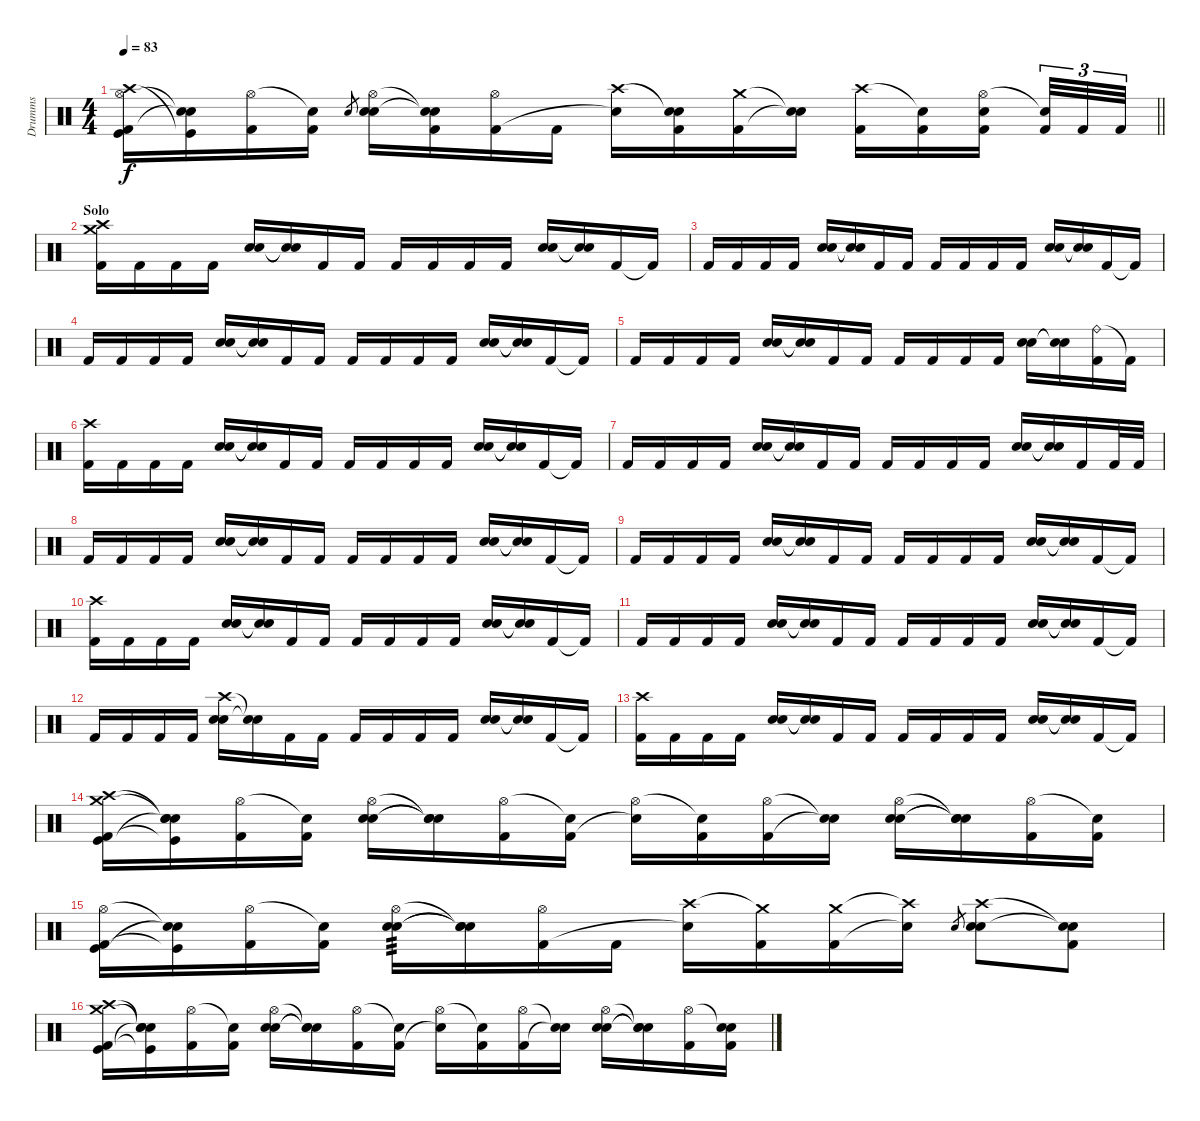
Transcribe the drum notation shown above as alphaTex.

\track ("Drumms" "Drumms") {instrument percussion}
\staff {score}
\articulation defaults
\ts (4 4)
\tempo 83
\clef neutral
\barLineRight lightlight
\ks c
("Hi-Hat (open)" "Crash high (hit)" "Kick (hit) 2" "Kick (hit)").16{dy f} ("Snare (hit)"{t} "Kick (hit)"{t} "Snare (hit)"{t}).16 ("Hi-Hat (open)" "Kick (hit) 2").16 ("Snare (hit)"{t} "Kick (hit) 2").16 "Electric Snare (hit)".8{gr} ("Hi-Hat (open)" "Electric Snare (hit)" "Electric Snare (hit)").16 ("Snare (hit)"{t} "Kick (hit) 2" "Snare (hit)"{t}).16 ("Hi-Hat (open)" "Kick (hit) 2").16 "Kick (hit) 2".16 ("Crash high (hit)" "Snare (hit)"{t}).16 ("Snare (hit)"{t} "Kick (hit) 2" "Electric Snare (hit)").16 ("Crash medium (hit)" "Kick (hit) 2").16 ("Snare (hit)"{t} "Snare (hit)"{t}).16 ("Crash high (hit)" "Kick (hit) 2").16 ("Snare (hit)"{t} "Kick (hit) 2").16 ("Hi-Hat (open)" "Kick (hit) 2" "Electric Snare (hit)").16{beam splitsecondary} ("Snare (hit)"{t} "Kick (hit) 2").32{tu (3 2)} "Kick (hit) 2".32{tu (3 2)} "Kick (hit) 2".32{tu (3 2)} |
\section ("" "Solo")
("Crash high (hit)" "Crash medium (hit)" "Kick (hit) 2").16 "Kick (hit) 2".16 "Kick (hit) 2".16 "Kick (hit) 2".16 ("Electric Snare (hit)" "Electric Snare (hit)").16 ("Snare (hit)"{t} "Snare (hit)"{t}).16 "Kick (hit) 2".16 "Kick (hit) 2".16 "Kick (hit) 2".16 "Kick (hit) 2".16 "Kick (hit) 2".16 "Kick (hit) 2".16 ("Electric Snare (hit)" "Electric Snare (hit)").16 ("Snare (hit)"{t} "Snare (hit)"{t}).16 "Kick (hit) 2".16 "Kick (hit) 2"{t}.16 |
"Kick (hit) 2".16 "Kick (hit) 2".16 "Kick (hit) 2".16 "Kick (hit) 2".16 ("Electric Snare (hit)" "Electric Snare (hit)").16 ("Snare (hit)"{t} "Snare (hit)"{t}).16 "Kick (hit) 2".16 "Kick (hit) 2".16 "Kick (hit) 2".16 "Kick (hit) 2".16 "Kick (hit) 2".16 "Kick (hit) 2".16 ("Electric Snare (hit)" "Electric Snare (hit)").16 ("Snare (hit)"{t} "Snare (hit)"{t}).16 "Kick (hit) 2".16 "Kick (hit) 2"{t}.16 |
"Kick (hit) 2".16 "Kick (hit) 2".16 "Kick (hit) 2".16 "Kick (hit) 2".16 ("Electric Snare (hit)" "Electric Snare (hit)").16 ("Snare (hit)"{t} "Snare (hit)"{t}).16 "Kick (hit) 2".16 "Kick (hit) 2".16 "Kick (hit) 2".16 "Kick (hit) 2".16 "Kick (hit) 2".16 "Kick (hit) 2".16 ("Electric Snare (hit)" "Electric Snare (hit)").16 ("Snare (hit)"{t} "Snare (hit)"{t}).16 "Kick (hit) 2".16 "Kick (hit) 2"{t}.16 |
"Kick (hit) 2".16 "Kick (hit) 2".16 "Kick (hit) 2".16 "Kick (hit) 2".16 ("Electric Snare (hit)" "Electric Snare (hit)").16 ("Snare (hit)"{t} "Snare (hit)"{t}).16 "Kick (hit) 2".16 "Kick (hit) 2".16 "Kick (hit) 2".16 "Kick (hit) 2".16 "Kick (hit) 2".16 "Kick (hit) 2".16 ("Electric Snare (hit)" "Electric Snare (hit)").16 ("Snare (hit)"{t} "Snare (hit)"{t}).16 ("Ride (bell)" "Kick (hit) 2").16 "Kick (hit) 2"{t}.16 |
("Crash high (hit)" "Kick (hit) 2").16 "Kick (hit) 2".16 "Kick (hit) 2".16 "Kick (hit) 2".16 ("Electric Snare (hit)" "Electric Snare (hit)").16 ("Snare (hit)"{t} "Snare (hit)"{t}).16 "Kick (hit) 2".16 "Kick (hit) 2".16 "Kick (hit) 2".16 "Kick (hit) 2".16 "Kick (hit) 2".16 "Kick (hit) 2".16 ("Electric Snare (hit)" "Electric Snare (hit)").16 ("Snare (hit)"{t} "Snare (hit)"{t}).16 "Kick (hit) 2".16 "Kick (hit) 2"{t}.16 |
"Kick (hit) 2".16 "Kick (hit) 2".16 "Kick (hit) 2".16 "Kick (hit) 2".16 ("Electric Snare (hit)" "Electric Snare (hit)").16 ("Snare (hit)"{t} "Snare (hit)"{t}).16 "Kick (hit) 2".16 "Kick (hit) 2".16 "Kick (hit) 2".16 "Kick (hit) 2".16 "Kick (hit) 2".16 "Kick (hit) 2".16 ("Electric Snare (hit)" "Electric Snare (hit)").16 ("Snare (hit)"{t} "Snare (hit)"{t}).16 "Kick (hit) 2".16 "Kick (hit) 2".32 "Kick (hit) 2".32 |
"Kick (hit) 2".16 "Kick (hit) 2".16 "Kick (hit) 2".16 "Kick (hit) 2".16 ("Electric Snare (hit)" "Electric Snare (hit)").16 ("Snare (hit)"{t} "Snare (hit)"{t}).16 "Kick (hit) 2".16 "Kick (hit) 2".16 "Kick (hit) 2".16 "Kick (hit) 2".16 "Kick (hit) 2".16 "Kick (hit) 2".16 ("Electric Snare (hit)" "Electric Snare (hit)").16 ("Snare (hit)"{t} "Snare (hit)"{t}).16 "Kick (hit) 2".16 "Kick (hit) 2"{t}.16 |
"Kick (hit) 2".16 "Kick (hit) 2".16 "Kick (hit) 2".16 "Kick (hit) 2".16 ("Electric Snare (hit)" "Electric Snare (hit)").16 ("Snare (hit)"{t} "Snare (hit)"{t}).16 "Kick (hit) 2".16 "Kick (hit) 2".16 "Kick (hit) 2".16 "Kick (hit) 2".16 "Kick (hit) 2".16 "Kick (hit) 2".16 ("Electric Snare (hit)" "Electric Snare (hit)").16 ("Snare (hit)"{t} "Snare (hit)"{t}).16 "Kick (hit) 2".16 "Kick (hit) 2"{t}.16 |
("Crash high (hit)" "Kick (hit) 2").16 "Kick (hit) 2".16 "Kick (hit) 2".16 "Kick (hit) 2".16 ("Electric Snare (hit)" "Electric Snare (hit)").16 ("Snare (hit)"{t} "Snare (hit)"{t}).16 "Kick (hit) 2".16 "Kick (hit) 2".16 "Kick (hit) 2".16 "Kick (hit) 2".16 "Kick (hit) 2".16 "Kick (hit) 2".16 ("Electric Snare (hit)" "Electric Snare (hit)").16 ("Snare (hit)"{t} "Snare (hit)"{t}).16 "Kick (hit) 2".16 "Kick (hit) 2"{t}.16 |
"Kick (hit) 2".16 "Kick (hit) 2".16 "Kick (hit) 2".16 "Kick (hit) 2".16 ("Electric Snare (hit)" "Electric Snare (hit)").16 ("Snare (hit)"{t} "Snare (hit)"{t}).16 "Kick (hit) 2".16 "Kick (hit) 2".16 "Kick (hit) 2".16 "Kick (hit) 2".16 "Kick (hit) 2".16 "Kick (hit) 2".16 ("Electric Snare (hit)" "Electric Snare (hit)").16 ("Snare (hit)"{t} "Snare (hit)"{t}).16 "Kick (hit) 2".16 "Kick (hit) 2"{t}.16 |
"Kick (hit) 2".16 "Kick (hit) 2".16 "Kick (hit) 2".16 "Kick (hit) 2".16 ("Crash high (hit)" "Electric Snare (hit)" "Electric Snare (hit)").16 ("Snare (hit)"{t} "Snare (hit)"{t}).16 "Kick (hit) 2".16 "Kick (hit) 2".16 "Kick (hit) 2".16 "Kick (hit) 2".16 "Kick (hit) 2".16 "Kick (hit) 2".16 ("Electric Snare (hit)" "Electric Snare (hit)").16 ("Snare (hit)"{t} "Snare (hit)"{t}).16 "Kick (hit) 2".16 "Kick (hit) 2"{t}.16 |
("Crash high (hit)" "Kick (hit) 2").16 "Kick (hit) 2".16 "Kick (hit) 2".16 "Kick (hit) 2".16 ("Electric Snare (hit)" "Electric Snare (hit)").16 ("Snare (hit)"{t} "Snare (hit)"{t}).16 "Kick (hit) 2".16 "Kick (hit) 2".16 "Kick (hit) 2".16 "Kick (hit) 2".16 "Kick (hit) 2".16 "Kick (hit) 2".16 ("Electric Snare (hit)" "Electric Snare (hit)").16 ("Snare (hit)"{t} "Snare (hit)"{t}).16 "Kick (hit) 2".16 "Kick (hit) 2"{t}.16 |
("Crash high (hit)" "Crash medium (hit)" "Kick (hit) 2" "Kick (hit)").16 ("Snare (hit)"{t} "Snare (hit)"{t} "Kick (hit)"{t} "Snare (hit)"{t}).16 ("Hi-Hat (open)" "Kick (hit) 2").16 ("Snare (hit)"{t} "Kick (hit) 2").16 ("Hi-Hat (open)" "Electric Snare (hit)" "Electric Snare (hit)").16 ("Snare (hit)"{t} "Snare (hit)"{t} "Snare (hit)"{t}).16 ("Hi-Hat (open)" "Kick (hit) 2").16 ("Snare (hit)"{t} "Kick (hit) 2").16 ("Hi-Hat (open)" "Snare (hit)"{t}).16 ("Snare (hit)"{t} "Kick (hit) 2").16 ("Hi-Hat (open)" "Kick (hit) 2").16 ("Snare (hit)"{t} "Snare (hit)"{t}).16 ("Hi-Hat (open)" "Electric Snare (hit)" "Electric Snare (hit)").16 ("Snare (hit)"{t} "Snare (hit)"{t} "Snare (hit)"{t}).16 ("Hi-Hat (open)" "Kick (hit) 2").16 ("Snare (hit)"{t} "Kick (hit) 2").16 |
("Hi-Hat (open)" "Kick (hit) 2" "Kick (hit)").16 ("Snare (hit)"{t} "Kick (hit)"{t} "Snare (hit)"{t}).16 ("Hi-Hat (open)" "Kick (hit) 2").16 ("Snare (hit)"{t} "Kick (hit) 2").16 ("Hi-Hat (open)" "Electric Snare (hit)" "Electric Snare (hit)").16{tp 3} ("Snare (hit)"{t} "Snare (hit)"{t} "Snare (hit)"{t}).16 ("Hi-Hat (open)" "Kick (hit) 2").16 "Kick (hit) 2".16 ("Crash high (hit)" "Snare (hit)"{t}).16 ("Crash medium (hit)"{t} "Kick (hit) 2").16 ("Crash medium (hit)" "Kick (hit) 2").16 ("Crash high (hit)"{t} "Snare (hit)"{t}).16 "Electric Snare (hit)".8{gr} ("Crash high (hit)" "Electric Snare (hit)" "Electric Snare (hit)").8 ("Snare (hit)"{t} "Kick (hit) 2" "Snare (hit)"{t}).8 |
("Crash high (hit)" "Crash medium (hit)" "Kick (hit) 2" "Kick (hit)").16 ("Snare (hit)"{t} "Snare (hit)"{t} "Kick (hit)"{t} "Snare (hit)"{t}).16 ("Hi-Hat (open)" "Kick (hit) 2").16 ("Snare (hit)"{t} "Kick (hit) 2").16 ("Hi-Hat (open)" "Electric Snare (hit)" "Electric Snare (hit)").16 ("Snare (hit)"{t} "Snare (hit)"{t} "Snare (hit)"{t}).16 ("Hi-Hat (open)" "Kick (hit) 2").16 ("Snare (hit)"{t} "Kick (hit) 2").16 ("Hi-Hat (open)" "Snare (hit)"{t}).16 ("Snare (hit)"{t} "Kick (hit) 2").16 ("Hi-Hat (open)" "Kick (hit) 2").16 ("Snare (hit)"{t} "Snare (hit)"{t}).16 ("Hi-Hat (open)" "Electric Snare (hit)" "Electric Snare (hit)").16 ("Snare (hit)"{t} "Snare (hit)"{t} "Snare (hit)"{t}).16 ("Hi-Hat (open)" "Kick (hit) 2").16 ("Snare (hit)"{t} "Kick (hit) 2" "Electric Snare (hit)").16
